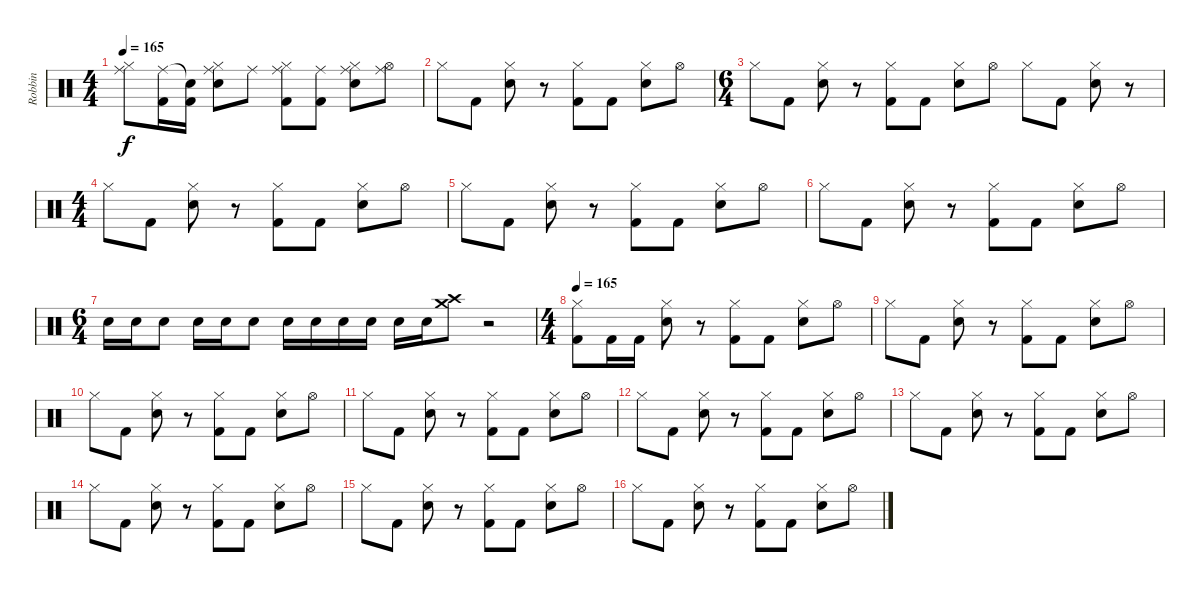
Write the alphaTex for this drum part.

\track ("Robbin" "Robbin") {instrument percussion}
\staff {score}
\articulation defaults
\ts (4 4)
\tempo 165
\clef neutral
\ks c
("Hi-Hat (closed)" "Ride (middle)").8{dy f} ("Ride (middle)" "Kick (hit) 2").16 ("Snare (hit)"{t} "Kick (hit) 2").16 ("Hi-Hat (closed)" "Ride (middle)" "Snare (hit) 2").8 "Ride (middle)".8 ("Hi-Hat (closed)" "Ride (middle)" "Kick (hit) 2").8 ("Ride (middle)" "Kick (hit) 2").8 ("Hi-Hat (closed)" "Ride (middle)" "Snare (hit) 2").8 ("Hi-Hat (open)" "Ride (middle)").8 |
"Hi-Hat (closed)".8 "Kick (hit) 2".8 ("Hi-Hat (closed)" "Snare (hit) 2").8 r.8 ("Hi-Hat (closed)" "Kick (hit) 2").8 "Kick (hit) 2".8 ("Hi-Hat (closed)" "Snare (hit) 2").8 "Hi-Hat (open)".8 |
\ts (6 4)
"Hi-Hat (closed)".8 "Kick (hit) 2".8 ("Hi-Hat (closed)" "Snare (hit) 2").8 r.8 ("Hi-Hat (closed)" "Kick (hit) 2").8 "Kick (hit) 2".8 ("Hi-Hat (closed)" "Snare (hit) 2").8 "Hi-Hat (open)".8 "Hi-Hat (closed)".8 "Kick (hit) 2".8 ("Hi-Hat (closed)" "Snare (hit) 2").8 r.8 |
\ts (4 4)
"Hi-Hat (closed)".8 "Kick (hit) 2".8 ("Hi-Hat (closed)" "Snare (hit) 2").8 r.8 ("Hi-Hat (closed)" "Kick (hit) 2").8 "Kick (hit) 2".8 ("Hi-Hat (closed)" "Snare (hit) 2").8 "Hi-Hat (open)".8 |
"Hi-Hat (closed)".8 "Kick (hit) 2".8 ("Hi-Hat (closed)" "Snare (hit) 2").8 r.8 ("Hi-Hat (closed)" "Kick (hit) 2").8 "Kick (hit) 2".8 ("Hi-Hat (closed)" "Snare (hit) 2").8 "Hi-Hat (open)".8 |
"Hi-Hat (closed)".8 "Kick (hit) 2".8 ("Hi-Hat (closed)" "Snare (hit) 2").8 r.8 ("Hi-Hat (closed)" "Kick (hit) 2").8 "Kick (hit) 2".8 ("Hi-Hat (closed)" "Snare (hit) 2").8 "Hi-Hat (open)".8 |
\ts (6 4)
"Snare (hit) 2".16 "Snare (hit) 2".16 "Snare (hit) 2".8 "Snare (hit) 2".16 "Snare (hit) 2".16 "Snare (hit) 2".8 "Snare (hit) 2".16 "Snare (hit) 2".16 "Snare (hit) 2".16 "Snare (hit) 2".16 "Snare (hit) 2".16 "Snare (hit) 2".16 ("Crash medium (hit)" "Crash high (hit)").8 r.2 |
\ts (4 4)
\tempo 165
("Hi-Hat (closed)" "Kick (hit) 2").8 "Kick (hit) 2".16 "Kick (hit) 2".16 ("Hi-Hat (closed)" "Snare (hit) 2").8 r.8 ("Hi-Hat (closed)" "Kick (hit) 2").8 "Kick (hit) 2".8 ("Hi-Hat (closed)" "Snare (hit) 2").8 "Hi-Hat (open)".8 |
"Hi-Hat (closed)".8 "Kick (hit) 2".8 ("Hi-Hat (closed)" "Snare (hit) 2").8 r.8 ("Hi-Hat (closed)" "Kick (hit) 2").8 "Kick (hit) 2".8 ("Hi-Hat (closed)" "Snare (hit) 2").8 "Hi-Hat (open)".8 |
"Hi-Hat (closed)".8 "Kick (hit) 2".8 ("Hi-Hat (closed)" "Snare (hit) 2").8 r.8 ("Hi-Hat (closed)" "Kick (hit) 2").8 "Kick (hit) 2".8 ("Hi-Hat (closed)" "Snare (hit) 2").8 "Hi-Hat (open)".8 |
"Hi-Hat (closed)".8 "Kick (hit) 2".8 ("Hi-Hat (closed)" "Snare (hit) 2").8 r.8 ("Hi-Hat (closed)" "Kick (hit) 2").8 "Kick (hit) 2".8 ("Hi-Hat (closed)" "Snare (hit) 2").8 "Hi-Hat (open)".8 |
"Hi-Hat (closed)".8 "Kick (hit) 2".8 ("Hi-Hat (closed)" "Snare (hit) 2").8 r.8 ("Hi-Hat (closed)" "Kick (hit) 2").8 "Kick (hit) 2".8 ("Hi-Hat (closed)" "Snare (hit) 2").8 "Hi-Hat (open)".8 |
"Hi-Hat (closed)".8 "Kick (hit) 2".8 ("Hi-Hat (closed)" "Snare (hit) 2").8 r.8 ("Hi-Hat (closed)" "Kick (hit) 2").8 "Kick (hit) 2".8 ("Hi-Hat (closed)" "Snare (hit) 2").8 "Hi-Hat (open)".8 |
"Hi-Hat (closed)".8 "Kick (hit) 2".8 ("Hi-Hat (closed)" "Snare (hit) 2").8 r.8 ("Hi-Hat (closed)" "Kick (hit) 2").8 "Kick (hit) 2".8 ("Hi-Hat (closed)" "Snare (hit) 2").8 "Hi-Hat (open)".8 |
"Hi-Hat (closed)".8 "Kick (hit) 2".8 ("Hi-Hat (closed)" "Snare (hit) 2").8 r.8 ("Hi-Hat (closed)" "Kick (hit) 2").8 "Kick (hit) 2".8 ("Hi-Hat (closed)" "Snare (hit) 2").8 "Hi-Hat (open)".8 |
"Hi-Hat (closed)".8 "Kick (hit) 2".8 ("Hi-Hat (closed)" "Snare (hit) 2").8 r.8 ("Hi-Hat (closed)" "Kick (hit) 2").8 "Kick (hit) 2".8 ("Hi-Hat (closed)" "Snare (hit) 2").8 "Hi-Hat (open)".8
